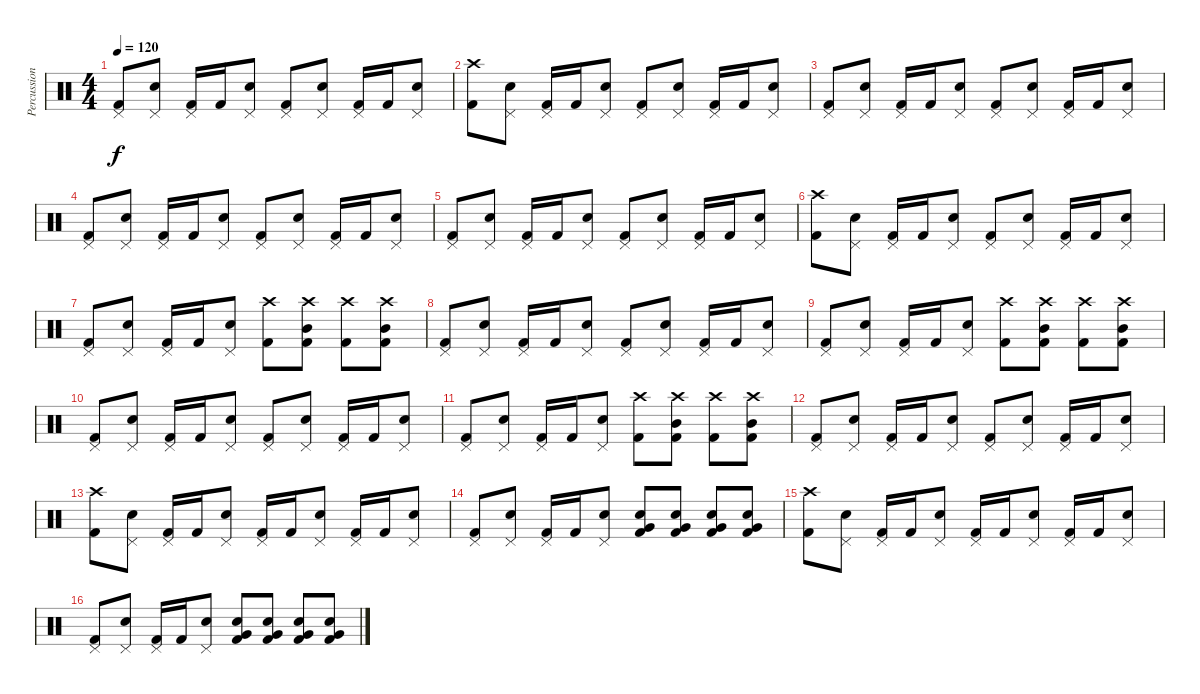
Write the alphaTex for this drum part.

\track ("Percussion" "Percussion") {instrument percussion}
\staff {score}
\articulation defaults
\ts (4 4)
\tempo 120
\clef neutral
\ks c
("Pedal Hi-Hat (hit)" "Kick (hit) 2").8{dy f} ("Pedal Hi-Hat (hit)" "Snare (hit) 2").8 ("Pedal Hi-Hat (hit)" "Kick (hit) 2").16 "Kick (hit) 2".16 ("Pedal Hi-Hat (hit)" "Snare (hit) 2").8 ("Pedal Hi-Hat (hit)" "Kick (hit) 2").8 ("Pedal Hi-Hat (hit)" "Snare (hit) 2").8 ("Pedal Hi-Hat (hit)" "Kick (hit) 2").16 "Kick (hit) 2".16 ("Pedal Hi-Hat (hit)" "Snare (hit) 2").8 |
("Crash high (hit)" "Kick (hit) 2").8 ("Pedal Hi-Hat (hit)" "Snare (hit) 2").8 ("Pedal Hi-Hat (hit)" "Kick (hit) 2").16 "Kick (hit) 2".16 ("Pedal Hi-Hat (hit)" "Snare (hit) 2").8 ("Pedal Hi-Hat (hit)" "Kick (hit) 2").8 ("Pedal Hi-Hat (hit)" "Snare (hit) 2").8 ("Pedal Hi-Hat (hit)" "Kick (hit) 2").16 "Kick (hit) 2".16 ("Pedal Hi-Hat (hit)" "Snare (hit) 2").8 |
("Pedal Hi-Hat (hit)" "Kick (hit) 2").8 ("Pedal Hi-Hat (hit)" "Snare (hit) 2").8 ("Pedal Hi-Hat (hit)" "Kick (hit) 2").16 "Kick (hit) 2".16 ("Pedal Hi-Hat (hit)" "Snare (hit) 2").8 ("Pedal Hi-Hat (hit)" "Kick (hit) 2").8 ("Pedal Hi-Hat (hit)" "Snare (hit) 2").8 ("Pedal Hi-Hat (hit)" "Kick (hit) 2").16 "Kick (hit) 2".16 ("Pedal Hi-Hat (hit)" "Snare (hit) 2").8 |
("Pedal Hi-Hat (hit)" "Kick (hit) 2").8 ("Pedal Hi-Hat (hit)" "Snare (hit) 2").8 ("Pedal Hi-Hat (hit)" "Kick (hit) 2").16 "Kick (hit) 2".16 ("Pedal Hi-Hat (hit)" "Snare (hit) 2").8 ("Pedal Hi-Hat (hit)" "Kick (hit) 2").8 ("Pedal Hi-Hat (hit)" "Snare (hit) 2").8 ("Pedal Hi-Hat (hit)" "Kick (hit) 2").16 "Kick (hit) 2".16 ("Pedal Hi-Hat (hit)" "Snare (hit) 2").8 |
("Pedal Hi-Hat (hit)" "Kick (hit) 2").8 ("Pedal Hi-Hat (hit)" "Snare (hit) 2").8 ("Pedal Hi-Hat (hit)" "Kick (hit) 2").16 "Kick (hit) 2".16 ("Pedal Hi-Hat (hit)" "Snare (hit) 2").8 ("Pedal Hi-Hat (hit)" "Kick (hit) 2").8 ("Pedal Hi-Hat (hit)" "Snare (hit) 2").8 ("Pedal Hi-Hat (hit)" "Kick (hit) 2").16 "Kick (hit) 2".16 ("Pedal Hi-Hat (hit)" "Snare (hit) 2").8 |
("Crash high (hit)" "Kick (hit) 2").8 ("Pedal Hi-Hat (hit)" "Snare (hit) 2").8 ("Pedal Hi-Hat (hit)" "Kick (hit) 2").16 "Kick (hit) 2".16 ("Pedal Hi-Hat (hit)" "Snare (hit) 2").8 ("Pedal Hi-Hat (hit)" "Kick (hit) 2").8 ("Pedal Hi-Hat (hit)" "Snare (hit) 2").8 ("Pedal Hi-Hat (hit)" "Kick (hit) 2").16 "Kick (hit) 2".16 ("Pedal Hi-Hat (hit)" "Snare (hit) 2").8 |
("Pedal Hi-Hat (hit)" "Kick (hit) 2").8 ("Pedal Hi-Hat (hit)" "Snare (hit) 2").8 ("Pedal Hi-Hat (hit)" "Kick (hit) 2").16 "Kick (hit) 2".16 ("Pedal Hi-Hat (hit)" "Snare (hit) 2").8 ("Crash high (hit)" "Kick (hit) 2").8 ("Crash high (hit)" "Mid Tom (hit)" "Kick (hit) 2").8 ("Crash high (hit)" "Kick (hit) 2").8 ("Crash high (hit)" "Mid Tom (hit)" "Kick (hit) 2").8 |
("Pedal Hi-Hat (hit)" "Kick (hit) 2").8 ("Pedal Hi-Hat (hit)" "Snare (hit) 2").8 ("Pedal Hi-Hat (hit)" "Kick (hit) 2").16 "Kick (hit) 2".16 ("Pedal Hi-Hat (hit)" "Snare (hit) 2").8 ("Pedal Hi-Hat (hit)" "Kick (hit) 2").8 ("Pedal Hi-Hat (hit)" "Snare (hit) 2").8 ("Pedal Hi-Hat (hit)" "Kick (hit) 2").16 "Kick (hit) 2".16 ("Pedal Hi-Hat (hit)" "Snare (hit) 2").8 |
("Pedal Hi-Hat (hit)" "Kick (hit) 2").8 ("Pedal Hi-Hat (hit)" "Snare (hit) 2").8 ("Pedal Hi-Hat (hit)" "Kick (hit) 2").16 "Kick (hit) 2".16 ("Pedal Hi-Hat (hit)" "Snare (hit) 2").8 ("Crash high (hit)" "Kick (hit) 2").8 ("Crash high (hit)" "Mid Tom (hit)" "Kick (hit) 2").8 ("Crash high (hit)" "Kick (hit) 2").8 ("Crash high (hit)" "Mid Tom (hit)" "Kick (hit) 2").8 |
("Pedal Hi-Hat (hit)" "Kick (hit) 2").8 ("Pedal Hi-Hat (hit)" "Snare (hit) 2").8 ("Pedal Hi-Hat (hit)" "Kick (hit) 2").16 "Kick (hit) 2".16 ("Pedal Hi-Hat (hit)" "Snare (hit) 2").8 ("Pedal Hi-Hat (hit)" "Kick (hit) 2").8 ("Pedal Hi-Hat (hit)" "Snare (hit) 2").8 ("Pedal Hi-Hat (hit)" "Kick (hit) 2").16 "Kick (hit) 2".16 ("Pedal Hi-Hat (hit)" "Snare (hit) 2").8 |
("Pedal Hi-Hat (hit)" "Kick (hit) 2").8 ("Pedal Hi-Hat (hit)" "Snare (hit) 2").8 ("Pedal Hi-Hat (hit)" "Kick (hit) 2").16 "Kick (hit) 2".16 ("Pedal Hi-Hat (hit)" "Snare (hit) 2").8 ("Crash high (hit)" "Kick (hit) 2").8 ("Crash high (hit)" "Mid Tom (hit)" "Kick (hit) 2").8 ("Crash high (hit)" "Kick (hit) 2").8 ("Crash high (hit)" "Mid Tom (hit)" "Kick (hit) 2").8 |
("Pedal Hi-Hat (hit)" "Kick (hit) 2").8 ("Pedal Hi-Hat (hit)" "Snare (hit) 2").8 ("Pedal Hi-Hat (hit)" "Kick (hit) 2").16 "Kick (hit) 2".16 ("Pedal Hi-Hat (hit)" "Snare (hit) 2").8 ("Pedal Hi-Hat (hit)" "Kick (hit) 2").8 ("Pedal Hi-Hat (hit)" "Snare (hit) 2").8 ("Pedal Hi-Hat (hit)" "Kick (hit) 2").16 "Kick (hit) 2".16 ("Pedal Hi-Hat (hit)" "Snare (hit) 2").8 |
("Crash high (hit)" "Kick (hit) 2").8 ("Pedal Hi-Hat (hit)" "Snare (hit) 2").8 ("Pedal Hi-Hat (hit)" "Kick (hit) 2").16 "Kick (hit) 2".16 ("Pedal Hi-Hat (hit)" "Snare (hit) 2").8 ("Pedal Hi-Hat (hit)" "Kick (hit) 2").16 "Kick (hit) 2".16 ("Pedal Hi-Hat (hit)" "Snare (hit) 2").8 ("Pedal Hi-Hat (hit)" "Kick (hit) 2").16 "Kick (hit) 2".16 ("Pedal Hi-Hat (hit)" "Snare (hit) 2").8 |
("Pedal Hi-Hat (hit)" "Kick (hit) 2").8 ("Pedal Hi-Hat (hit)" "Snare (hit) 2").8 ("Pedal Hi-Hat (hit)" "Kick (hit) 2").16 "Kick (hit) 2".16 ("Pedal Hi-Hat (hit)" "Snare (hit) 2").8 ("Snare (hit) 2" "Very Low Tom (hit)" "Kick (hit) 2").8 ("Snare (hit) 2" "Very Low Tom (hit)" "Kick (hit) 2").8 ("Snare (hit) 2" "Very Low Tom (hit)" "Kick (hit) 2").8 ("Snare (hit) 2" "Very Low Tom (hit)" "Kick (hit) 2").8 |
("Crash high (hit)" "Kick (hit) 2").8 ("Pedal Hi-Hat (hit)" "Snare (hit) 2").8 ("Pedal Hi-Hat (hit)" "Kick (hit) 2").16 "Kick (hit) 2".16 ("Pedal Hi-Hat (hit)" "Snare (hit) 2").8 ("Pedal Hi-Hat (hit)" "Kick (hit) 2").16 "Kick (hit) 2".16 ("Pedal Hi-Hat (hit)" "Snare (hit) 2").8 ("Pedal Hi-Hat (hit)" "Kick (hit) 2").16 "Kick (hit) 2".16 ("Pedal Hi-Hat (hit)" "Snare (hit) 2").8 |
("Pedal Hi-Hat (hit)" "Kick (hit) 2").8 ("Pedal Hi-Hat (hit)" "Snare (hit) 2").8 ("Pedal Hi-Hat (hit)" "Kick (hit) 2").16 "Kick (hit) 2".16 ("Pedal Hi-Hat (hit)" "Snare (hit) 2").8 ("Snare (hit) 2" "Very Low Tom (hit)" "Kick (hit) 2").8 ("Snare (hit) 2" "Very Low Tom (hit)" "Kick (hit) 2").8 ("Snare (hit) 2" "Very Low Tom (hit)" "Kick (hit) 2").8 ("Snare (hit) 2" "Very Low Tom (hit)" "Kick (hit) 2").8
